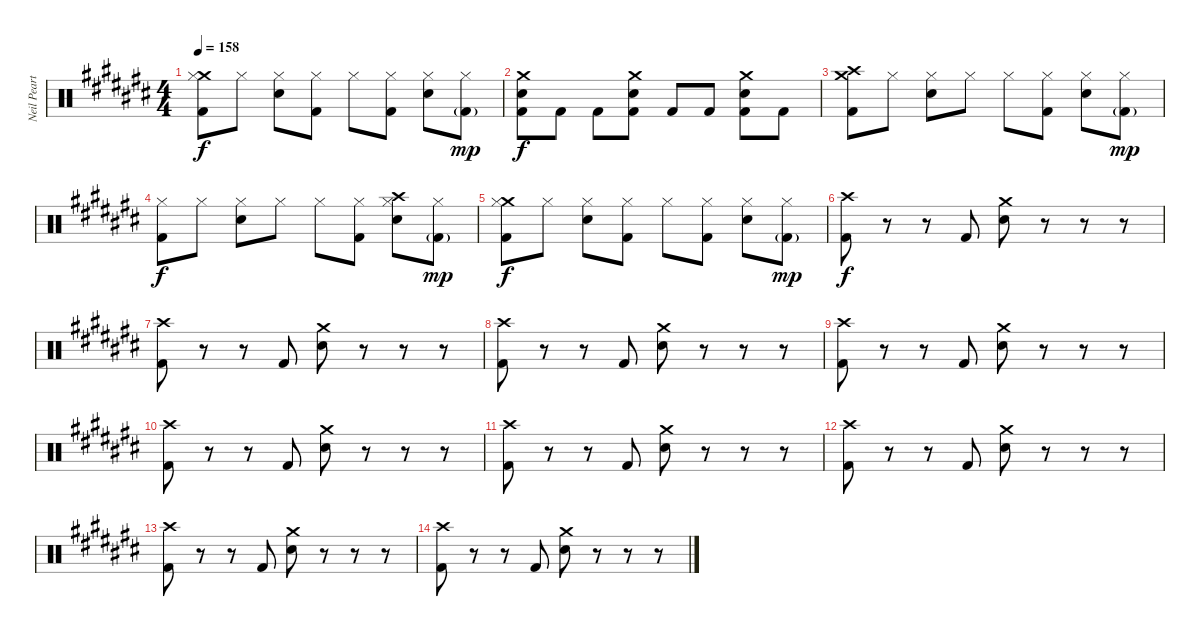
\track ("Neil Peart (drums)" "Neil Peart") {instrument percussion}
\staff {score}
\articulation defaults
\ts (4 4)
\tempo 158
\clef neutral
\ks c#
("Crash medium (hit)" "Hi-Hat (closed)" "Kick (hit) 2").8{dy f} "Hi-Hat (closed)".8 ("Hi-Hat (closed)" "Electric Snare (hit)").8 ("Hi-Hat (closed)" "Kick (hit) 2").8 "Hi-Hat (closed)".8 ("Hi-Hat (closed)" "Kick (hit) 2").8 ("Hi-Hat (closed)" "Electric Snare (hit)").8 ("Hi-Hat (closed)" "Kick (hit) 2"{g}).8{dy mp} |
("Crash medium (hit)" "Electric Snare (hit)" "Kick (hit) 2").8{dy f} "Kick (hit) 2".8 "Kick (hit) 2".8 ("Crash medium (hit)" "Electric Snare (hit)" "Kick (hit) 2").8 "Kick (hit) 2".8 "Kick (hit) 2".8 ("Crash medium (hit)" "Electric Snare (hit)" "Kick (hit) 2").8 "Kick (hit) 2".8 |
("Crash medium (hit)" "Crash high (hit)" "Kick (hit) 2").8 "Hi-Hat (closed)".8 ("Hi-Hat (closed)" "Electric Snare (hit)").8 "Hi-Hat (closed)".8 "Hi-Hat (closed)".8 ("Hi-Hat (closed)" "Kick (hit) 2").8 ("Hi-Hat (closed)" "Electric Snare (hit)").8 ("Hi-Hat (closed)" "Kick (hit) 2"{g}).8{dy mp} |
("Hi-Hat (closed)" "Kick (hit) 2").8{dy f} "Hi-Hat (closed)".8 ("Hi-Hat (closed)" "Electric Snare (hit)").8 "Hi-Hat (closed)".8 "Hi-Hat (closed)".8 ("Hi-Hat (closed)" "Kick (hit) 2").8 ("Crash high (hit)" "Hi-Hat (closed)" "Electric Snare (hit)").8 ("Hi-Hat (closed)" "Kick (hit) 2"{g}).8{dy mp} |
("Crash medium (hit)" "Hi-Hat (closed)" "Kick (hit) 2").8{dy f} "Hi-Hat (closed)".8 ("Hi-Hat (closed)" "Electric Snare (hit)").8 ("Hi-Hat (closed)" "Kick (hit) 2").8 "Hi-Hat (closed)".8 ("Hi-Hat (closed)" "Kick (hit) 2").8 ("Hi-Hat (closed)" "Electric Snare (hit)").8 ("Hi-Hat (closed)" "Kick (hit) 2"{g}).8{dy mp} |
("Crash high (hit)" "Kick (hit) 2").8{dy f} r.8 r.8 "Kick (hit) 2".8 ("Crash medium (hit)" "Electric Snare (hit)").8 r.8 r.8 r.8 |
("Crash high (hit)" "Kick (hit) 2").8 r.8 r.8 "Kick (hit) 2".8 ("Crash medium (hit)" "Electric Snare (hit)").8 r.8 r.8 r.8 |
("Crash high (hit)" "Kick (hit) 2").8 r.8 r.8 "Kick (hit) 2".8 ("Crash medium (hit)" "Electric Snare (hit)").8 r.8 r.8 r.8 |
("Crash high (hit)" "Kick (hit) 2").8 r.8 r.8 "Kick (hit) 2".8 ("Crash medium (hit)" "Electric Snare (hit)").8 r.8 r.8 r.8 |
("Crash high (hit)" "Kick (hit) 2").8 r.8 r.8 "Kick (hit) 2".8 ("Crash medium (hit)" "Electric Snare (hit)").8 r.8 r.8 r.8 |
("Crash high (hit)" "Kick (hit) 2").8 r.8 r.8 "Kick (hit) 2".8 ("Crash medium (hit)" "Electric Snare (hit)").8 r.8 r.8 r.8 |
("Crash high (hit)" "Kick (hit) 2").8 r.8 r.8 "Kick (hit) 2".8 ("Crash medium (hit)" "Electric Snare (hit)").8 r.8 r.8 r.8 |
("Crash high (hit)" "Kick (hit) 2").8 r.8 r.8 "Kick (hit) 2".8 ("Crash medium (hit)" "Electric Snare (hit)").8 r.8 r.8 r.8 |
("Crash high (hit)" "Kick (hit) 2").8 r.8 r.8 "Kick (hit) 2".8 ("Crash medium (hit)" "Electric Snare (hit)").8 r.8 r.8 r.8
